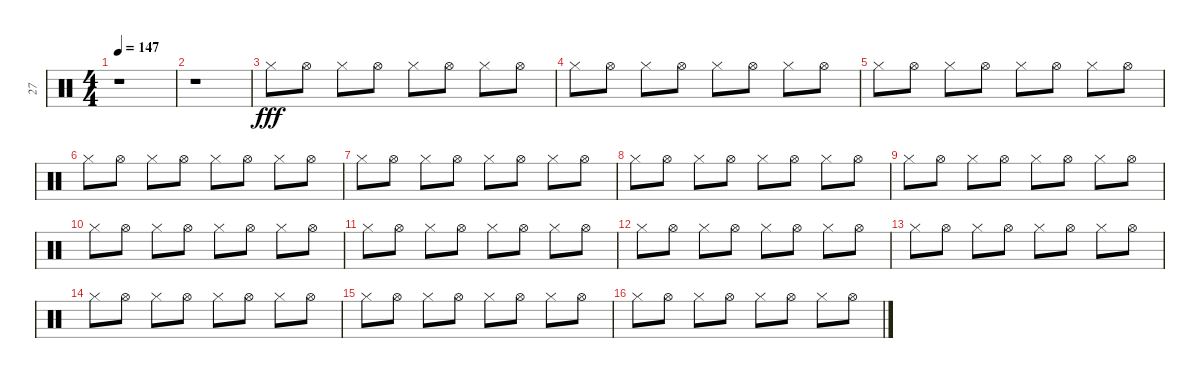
\track ("27" "27") {instrument percussion}
\staff {score}
\articulation defaults
\ts (4 4)
\tempo 147
\clef neutral
\ks c
r.1{dy fff} |
r.1 |
"Hi-Hat (closed)".8 "Hi-Hat (open)".8 "Hi-Hat (closed)".8 "Hi-Hat (open)".8 "Hi-Hat (closed)".8 "Hi-Hat (open)".8 "Hi-Hat (closed)".8 "Hi-Hat (open)".8 |
"Hi-Hat (closed)".8 "Hi-Hat (open)".8 "Hi-Hat (closed)".8 "Hi-Hat (open)".8 "Hi-Hat (closed)".8 "Hi-Hat (open)".8 "Hi-Hat (closed)".8 "Hi-Hat (open)".8 |
"Hi-Hat (closed)".8 "Hi-Hat (open)".8 "Hi-Hat (closed)".8 "Hi-Hat (open)".8 "Hi-Hat (closed)".8 "Hi-Hat (open)".8 "Hi-Hat (closed)".8 "Hi-Hat (open)".8 |
"Hi-Hat (closed)".8 "Hi-Hat (open)".8 "Hi-Hat (closed)".8 "Hi-Hat (open)".8 "Hi-Hat (closed)".8 "Hi-Hat (open)".8 "Hi-Hat (closed)".8 "Hi-Hat (open)".8 |
"Hi-Hat (closed)".8 "Hi-Hat (open)".8 "Hi-Hat (closed)".8 "Hi-Hat (open)".8 "Hi-Hat (closed)".8 "Hi-Hat (open)".8 "Hi-Hat (closed)".8 "Hi-Hat (open)".8 |
"Hi-Hat (closed)".8 "Hi-Hat (open)".8 "Hi-Hat (closed)".8 "Hi-Hat (open)".8 "Hi-Hat (closed)".8 "Hi-Hat (open)".8 "Hi-Hat (closed)".8 "Hi-Hat (open)".8 |
"Hi-Hat (closed)".8 "Hi-Hat (open)".8 "Hi-Hat (closed)".8 "Hi-Hat (open)".8 "Hi-Hat (closed)".8 "Hi-Hat (open)".8 "Hi-Hat (closed)".8 "Hi-Hat (open)".8 |
"Hi-Hat (closed)".8 "Hi-Hat (open)".8 "Hi-Hat (closed)".8 "Hi-Hat (open)".8 "Hi-Hat (closed)".8 "Hi-Hat (open)".8 "Hi-Hat (closed)".8 "Hi-Hat (open)".8 |
"Hi-Hat (closed)".8 "Hi-Hat (open)".8 "Hi-Hat (closed)".8 "Hi-Hat (open)".8 "Hi-Hat (closed)".8 "Hi-Hat (open)".8 "Hi-Hat (closed)".8 "Hi-Hat (open)".8 |
"Hi-Hat (closed)".8 "Hi-Hat (open)".8 "Hi-Hat (closed)".8 "Hi-Hat (open)".8 "Hi-Hat (closed)".8 "Hi-Hat (open)".8 "Hi-Hat (closed)".8 "Hi-Hat (open)".8 |
"Hi-Hat (closed)".8 "Hi-Hat (open)".8 "Hi-Hat (closed)".8 "Hi-Hat (open)".8 "Hi-Hat (closed)".8 "Hi-Hat (open)".8 "Hi-Hat (closed)".8 "Hi-Hat (open)".8 |
"Hi-Hat (closed)".8 "Hi-Hat (open)".8 "Hi-Hat (closed)".8 "Hi-Hat (open)".8 "Hi-Hat (closed)".8 "Hi-Hat (open)".8 "Hi-Hat (closed)".8 "Hi-Hat (open)".8 |
"Hi-Hat (closed)".8 "Hi-Hat (open)".8 "Hi-Hat (closed)".8 "Hi-Hat (open)".8 "Hi-Hat (closed)".8 "Hi-Hat (open)".8 "Hi-Hat (closed)".8 "Hi-Hat (open)".8 |
"Hi-Hat (closed)".8 "Hi-Hat (open)".8 "Hi-Hat (closed)".8 "Hi-Hat (open)".8 "Hi-Hat (closed)".8 "Hi-Hat (open)".8 "Hi-Hat (closed)".8 "Hi-Hat (open)".8
